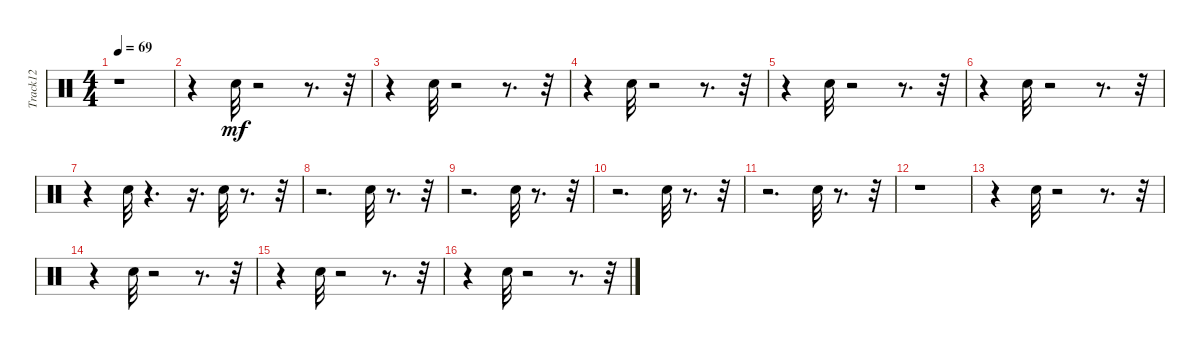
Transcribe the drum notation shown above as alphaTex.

\track ("Track12" "Track12") {instrument percussion}
\staff {score}
\articulation defaults
\ts (4 4)
\tempo 69
\clef neutral
\ks c
r.1{dy mf} |
r.4 "Hand Clap (hit)".32 r.2 r.8{d} r.32 |
r.4 "Hand Clap (hit)".32 r.2 r.8{d} r.32 |
r.4 "Hand Clap (hit)".32 r.2 r.8{d} r.32 |
r.4 "Hand Clap (hit)".32 r.2 r.8{d} r.32 |
r.4 "Hand Clap (hit)".32 r.2 r.8{d} r.32 |
r.4 "Hand Clap (hit)".32 r.4{d} r.16{d} "Hand Clap (hit)".32 r.8{d} r.32 |
r.2{d} "Hand Clap (hit)".32 r.8{d} r.32 |
r.2{d} "Hand Clap (hit)".32 r.8{d} r.32 |
r.2{d} "Hand Clap (hit)".32 r.8{d} r.32 |
r.2{d} "Hand Clap (hit)".32 r.8{d} r.32 |
r.1 |
r.4 "Hand Clap (hit)".32 r.2 r.8{d} r.32 |
r.4 "Hand Clap (hit)".32 r.2 r.8{d} r.32 |
r.4 "Hand Clap (hit)".32 r.2 r.8{d} r.32 |
r.4 "Hand Clap (hit)".32 r.2 r.8{d} r.32
